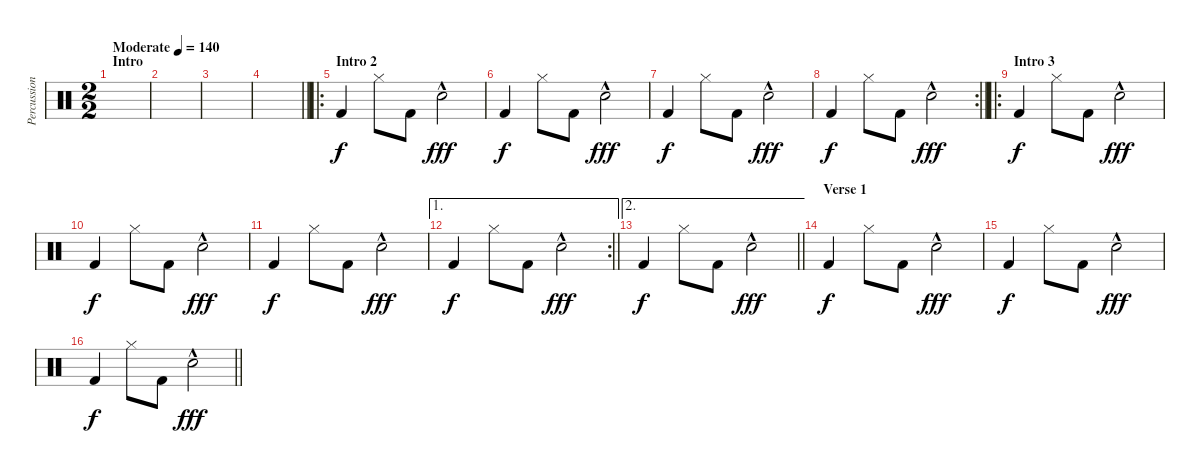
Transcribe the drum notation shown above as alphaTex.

\track ("Percussion" "Percussion") {instrument percussion}
\staff {score}
\articulation defaults
\ts (2 2)
\section ("" "Intro")
\tempo (140 "Moderate")
\clef neutral
\ks c
|
|
|
\barLineRight lightlight
|
\ro
\section ("" "Intro 2")
"Kick (hit) 2".4 "Hi-Hat (closed)".8 "Kick (hit) 2".8 "Hand Clap (hit)"{hac}.2{dy fff} |
"Kick (hit) 2".4{dy f} "Hi-Hat (closed)".8 "Kick (hit) 2".8 "Hand Clap (hit)"{hac}.2{dy fff} |
"Kick (hit) 2".4{dy f} "Hi-Hat (closed)".8 "Kick (hit) 2".8 "Hand Clap (hit)"{hac}.2{dy fff} |
\rc 2
\barLineRight lightlight "Kick (hit) 2".4{dy f} "Hi-Hat (closed)".8 "Kick (hit) 2".8 "Hand Clap (hit)"{hac}.2{dy fff}
|
\ro
\section ("" "Intro 3")
"Kick (hit) 2".4{dy f} "Hi-Hat (closed)".8 "Kick (hit) 2".8 "Hand Clap (hit)"{hac}.2{dy fff} |
"Kick (hit) 2".4{dy f} "Hi-Hat (closed)".8 "Kick (hit) 2".8 "Hand Clap (hit)"{hac}.2{dy fff} |
"Kick (hit) 2".4{dy f} "Hi-Hat (closed)".8 "Kick (hit) 2".8 "Hand Clap (hit)"{hac}.2{dy fff} |
\ae 1
\rc 2
\barLineRight lightlight "Kick (hit) 2".4{dy f} "Hi-Hat (closed)".8 "Kick (hit) 2".8 "Hand Clap (hit)"{hac}.2{dy fff}
|
\ae 2
\barLineRight lightlight "Kick (hit) 2".4{dy f} "Hi-Hat (closed)".8 "Kick (hit) 2".8 "Hand Clap (hit)"{hac}.2{dy fff}
|
\section ("" "Verse 1")
"Kick (hit) 2".4{dy f} "Hi-Hat (closed)".8 "Kick (hit) 2".8 "Hand Clap (hit)"{hac}.2{dy fff} |
"Kick (hit) 2".4{dy f} "Hi-Hat (closed)".8 "Kick (hit) 2".8 "Hand Clap (hit)"{hac}.2{dy fff} |
\barLineRight lightlight "Kick (hit) 2".4{dy f} "Hi-Hat (closed)".8 "Kick (hit) 2".8 "Hand Clap (hit)"{hac}.2{dy fff}
